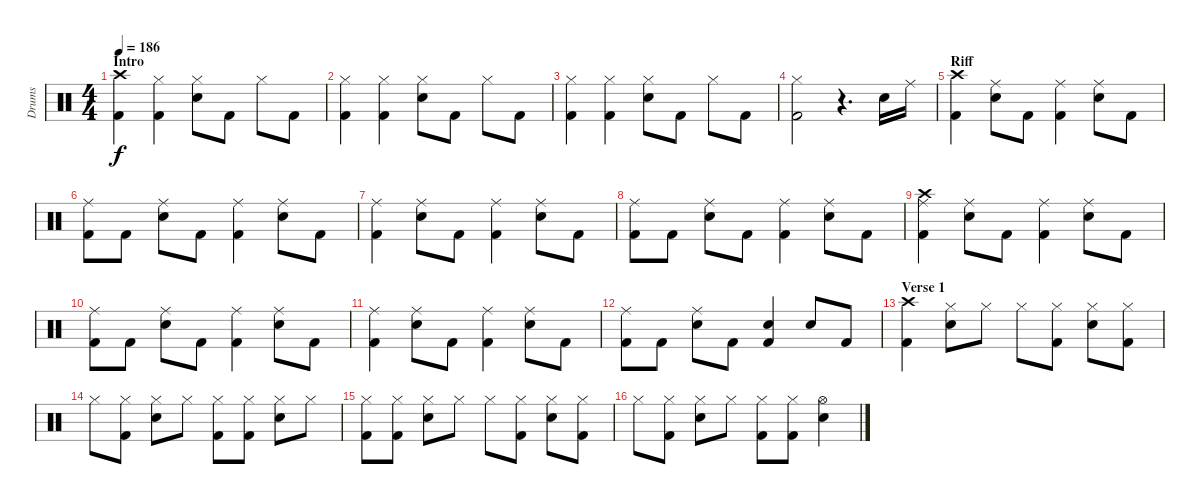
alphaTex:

\track ("Drums" "Drums") {instrument percussion}
\staff {score}
\articulation defaults
\ts (4 4)
\section ("" "Intro")
\tempo 186
\clef neutral
\ks c
("Crash high (hit)" "Kick (hit) 2").4{dy f} ("Hi-Hat (closed)" "Kick (hit) 2").4 ("Hi-Hat (closed)" "Snare (hit) 2").8 "Kick (hit) 2".8 "Hi-Hat (closed)".8 "Kick (hit) 2".8 |
("Hi-Hat (closed)" "Kick (hit) 2").4 ("Hi-Hat (closed)" "Kick (hit) 2").4 ("Hi-Hat (closed)" "Snare (hit) 2").8 "Kick (hit) 2".8 "Hi-Hat (closed)".8 "Kick (hit) 2".8 |
("Hi-Hat (closed)" "Kick (hit) 2").4 ("Hi-Hat (closed)" "Kick (hit) 2").4 ("Hi-Hat (closed)" "Snare (hit) 2").8 "Kick (hit) 2".8 "Hi-Hat (closed)".8 "Kick (hit) 2".8 |
("Hi-Hat (closed)" "Kick (hit) 2").2 r.4{d} "Snare (hit) 2".16 "Ride (middle)".16 |
\section ("" "Riff")
("Crash high (hit)" "Kick (hit) 2").4 ("Ride (middle)" "Snare (hit) 2").8 "Kick (hit) 2".8 ("Ride (middle)" "Kick (hit) 2").4 ("Ride (middle)" "Snare (hit) 2").8 "Kick (hit) 2".8 |
("Ride (middle)" "Kick (hit) 2").8 "Kick (hit) 2".8 ("Ride (middle)" "Snare (hit) 2").8 "Kick (hit) 2".8 ("Ride (middle)" "Kick (hit) 2").4 ("Ride (middle)" "Snare (hit) 2").8 "Kick (hit) 2".8 |
("Ride (middle)" "Kick (hit) 2").4 ("Ride (middle)" "Snare (hit) 2").8 "Kick (hit) 2".8 ("Ride (middle)" "Kick (hit) 2").4 ("Ride (middle)" "Snare (hit) 2").8 "Kick (hit) 2".8 |
("Ride (middle)" "Kick (hit) 2").8 "Kick (hit) 2".8 ("Ride (middle)" "Snare (hit) 2").8 "Kick (hit) 2".8 ("Ride (middle)" "Kick (hit) 2").4 ("Ride (middle)" "Snare (hit) 2").8 "Kick (hit) 2".8 |
("Crash high (hit)" "Ride (middle)" "Kick (hit) 2").4 ("Ride (middle)" "Snare (hit) 2").8 "Kick (hit) 2".8 ("Ride (middle)" "Kick (hit) 2").4 ("Ride (middle)" "Snare (hit) 2").8 "Kick (hit) 2".8 |
("Ride (middle)" "Kick (hit) 2").8 "Kick (hit) 2".8 ("Ride (middle)" "Snare (hit) 2").8 "Kick (hit) 2".8 ("Ride (middle)" "Kick (hit) 2").4 ("Ride (middle)" "Snare (hit) 2").8 "Kick (hit) 2".8 |
("Ride (middle)" "Kick (hit) 2").4 ("Ride (middle)" "Snare (hit) 2").8 "Kick (hit) 2".8 ("Ride (middle)" "Kick (hit) 2").4 ("Ride (middle)" "Snare (hit) 2").8 "Kick (hit) 2".8 |
("Ride (middle)" "Kick (hit) 2").8 "Kick (hit) 2".8 ("Ride (middle)" "Snare (hit) 2").8 "Kick (hit) 2".8 ("Snare (hit) 2" "Kick (hit) 2").4 "Snare (hit) 2".8 "Kick (hit) 2".8 |
\section ("" "Verse 1")
("Crash high (hit)" "Kick (hit) 2").4 ("Hi-Hat (closed)" "Snare (hit) 2").8 "Hi-Hat (closed)".8 "Hi-Hat (closed)".8 ("Hi-Hat (closed)" "Kick (hit) 2").8 ("Hi-Hat (closed)" "Snare (hit) 2").8 ("Hi-Hat (closed)" "Kick (hit) 2").8 |
"Hi-Hat (closed)".8 ("Hi-Hat (closed)" "Kick (hit) 2").8 ("Hi-Hat (closed)" "Snare (hit) 2").8 "Hi-Hat (closed)".8 ("Hi-Hat (closed)" "Kick (hit) 2").8 ("Hi-Hat (closed)" "Kick (hit) 2").8 ("Hi-Hat (closed)" "Snare (hit) 2").8 "Hi-Hat (closed)".8 |
("Hi-Hat (closed)" "Kick (hit) 2").8 ("Hi-Hat (closed)" "Kick (hit) 2").8 ("Hi-Hat (closed)" "Snare (hit) 2").8 "Hi-Hat (closed)".8 "Hi-Hat (closed)".8 ("Hi-Hat (closed)" "Kick (hit) 2").8 ("Hi-Hat (closed)" "Snare (hit) 2").8 ("Hi-Hat (closed)" "Kick (hit) 2").8 |
"Hi-Hat (closed)".8 ("Hi-Hat (closed)" "Kick (hit) 2").8 ("Hi-Hat (closed)" "Snare (hit) 2").8 "Hi-Hat (closed)".8 ("Hi-Hat (closed)" "Kick (hit) 2").8 ("Hi-Hat (closed)" "Kick (hit) 2").8 ("Hi-Hat (open)" "Snare (hit) 2").4
